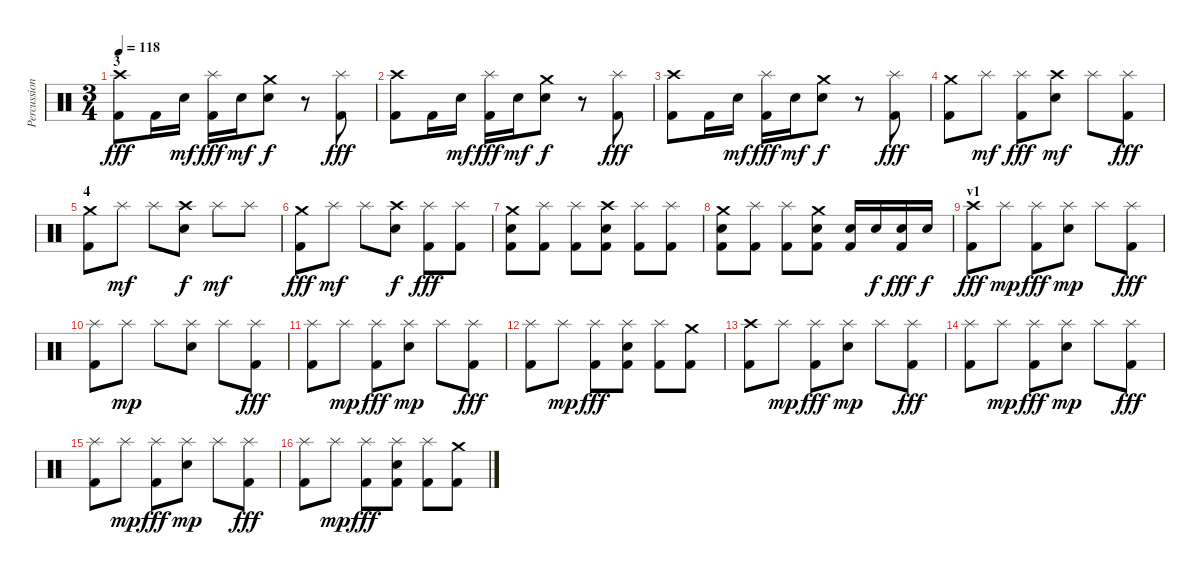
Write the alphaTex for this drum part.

\track ("Percussion" "Percussion") {instrument percussion}
\staff {score}
\articulation defaults
\ts (3 4)
\section ("" "3")
\tempo 118
\clef neutral
\ks c
("Crash high (hit)" "Kick (hit) 2").8{dy fff} "Kick (hit) 2".16 "Electric Snare (hit)".16{dy mf} ("Splash (hit)" "Kick (hit) 2").16{dy fff} "Electric Snare (hit)".16{dy mf} ("Crash medium (hit)" "Electric Snare (hit)").8{dy f} r.8 ("Splash (hit)" "Kick (hit) 2").8{dy fff} |
("Crash high (hit)" "Kick (hit) 2").8 "Kick (hit) 2".16 "Electric Snare (hit)".16{dy mf} ("Splash (hit)" "Kick (hit) 2").16{dy fff} "Electric Snare (hit)".16{dy mf} ("Crash medium (hit)" "Electric Snare (hit)").8{dy f} r.8 ("Splash (hit)" "Kick (hit) 2").8{dy fff} |
("Crash high (hit)" "Kick (hit) 2").8 "Kick (hit) 2".16 "Electric Snare (hit)".16{dy mf} ("Splash (hit)" "Kick (hit) 2").16{dy fff} "Electric Snare (hit)".16{dy mf} ("Crash medium (hit)" "Electric Snare (hit)").8{dy f} r.8 ("Splash (hit)" "Kick (hit) 2").8{dy fff} |
("Crash medium (hit)" "Kick (hit) 2").8 "Splash (hit)".8{dy mf} ("Splash (hit)" "Kick (hit) 2").8{dy fff} ("Crash high (hit)" "Electric Snare (hit)").8{dy mf} "Splash (hit)".8 ("Splash (hit)" "Kick (hit) 2").8{dy fff} |
\section ("" "4")
("Crash medium (hit)" "Kick (hit) 2").8 "Splash (hit)".8{dy mf} "Splash (hit)".8 ("Crash high (hit)" "Electric Snare (hit)").8{dy f} "Splash (hit)".8{dy mf} "Splash (hit)".8 |
("Crash medium (hit)" "Kick (hit) 2").8{dy fff} "Splash (hit)".8{dy mf} "Splash (hit)".8 ("Crash high (hit)" "Electric Snare (hit)").8{dy f} ("Splash (hit)" "Kick (hit) 2").8{dy fff} ("Splash (hit)" "Kick (hit) 2").8 |
("Crash medium (hit)" "Electric Snare (hit)" "Kick (hit) 2").8 ("Splash (hit)" "Kick (hit) 2").8 ("Splash (hit)" "Kick (hit) 2").8 ("Crash high (hit)" "Electric Snare (hit)" "Kick (hit) 2").8 ("Splash (hit)" "Kick (hit) 2").8 ("Splash (hit)" "Kick (hit) 2").8 |
("Crash medium (hit)" "Electric Snare (hit)" "Kick (hit) 2").8 ("Splash (hit)" "Kick (hit) 2").8 ("Splash (hit)" "Kick (hit) 2").8 ("Crash medium (hit)" "Electric Snare (hit)" "Kick (hit) 2").8 ("Electric Snare (hit)" "Kick (hit) 2").16 "Electric Snare (hit)".16{dy f} ("Electric Snare (hit)" "Kick (hit) 2").16{dy fff} "Electric Snare (hit)".16{dy f} |
\section ("" "v1")
("Crash high (hit)" "Kick (hit) 2").8{dy fff} "Splash (hit)".8{dy mp} ("Splash (hit)" "Kick (hit) 2").8{dy fff} ("Splash (hit)" "Electric Snare (hit)").8{dy mp} "Splash (hit)".8 ("Splash (hit)" "Kick (hit) 2").8{dy fff} |
("Splash (hit)" "Kick (hit) 2").8 "Splash (hit)".8{dy mp} "Splash (hit)".8 ("Splash (hit)" "Electric Snare (hit)").8 "Splash (hit)".8 ("Splash (hit)" "Kick (hit) 2").8{dy fff} |
("Splash (hit)" "Kick (hit) 2").8 "Splash (hit)".8{dy mp} ("Splash (hit)" "Kick (hit) 2").8{dy fff} ("Splash (hit)" "Electric Snare (hit)").8{dy mp} "Splash (hit)".8 ("Splash (hit)" "Kick (hit) 2").8{dy fff} |
("Splash (hit)" "Kick (hit) 2").8 "Splash (hit)".8{dy mp} ("Splash (hit)" "Kick (hit) 2").8{dy fff} ("Splash (hit)" "Electric Snare (hit)" "Kick (hit) 2").8 ("Splash (hit)" "Kick (hit) 2").8 ("Crash medium (hit)" "Kick (hit) 2").8 |
("Crash high (hit)" "Kick (hit) 2").8 "Splash (hit)".8{dy mp} ("Splash (hit)" "Kick (hit) 2").8{dy fff} ("Splash (hit)" "Electric Snare (hit)").8{dy mp} "Splash (hit)".8 ("Splash (hit)" "Kick (hit) 2").8{dy fff} |
("Splash (hit)" "Kick (hit) 2").8 "Splash (hit)".8{dy mp} ("Splash (hit)" "Kick (hit) 2").8{dy fff} ("Splash (hit)" "Electric Snare (hit)").8{dy mp} "Splash (hit)".8 ("Splash (hit)" "Kick (hit) 2").8{dy fff} |
("Splash (hit)" "Kick (hit) 2").8 "Splash (hit)".8{dy mp} ("Splash (hit)" "Kick (hit) 2").8{dy fff} ("Splash (hit)" "Electric Snare (hit)").8{dy mp} "Splash (hit)".8 ("Splash (hit)" "Kick (hit) 2").8{dy fff} |
("Splash (hit)" "Kick (hit) 2").8 "Splash (hit)".8{dy mp} ("Splash (hit)" "Kick (hit) 2").8{dy fff} ("Splash (hit)" "Electric Snare (hit)" "Kick (hit) 2").8 ("Splash (hit)" "Kick (hit) 2").8 ("Crash medium (hit)" "Kick (hit) 2").8
